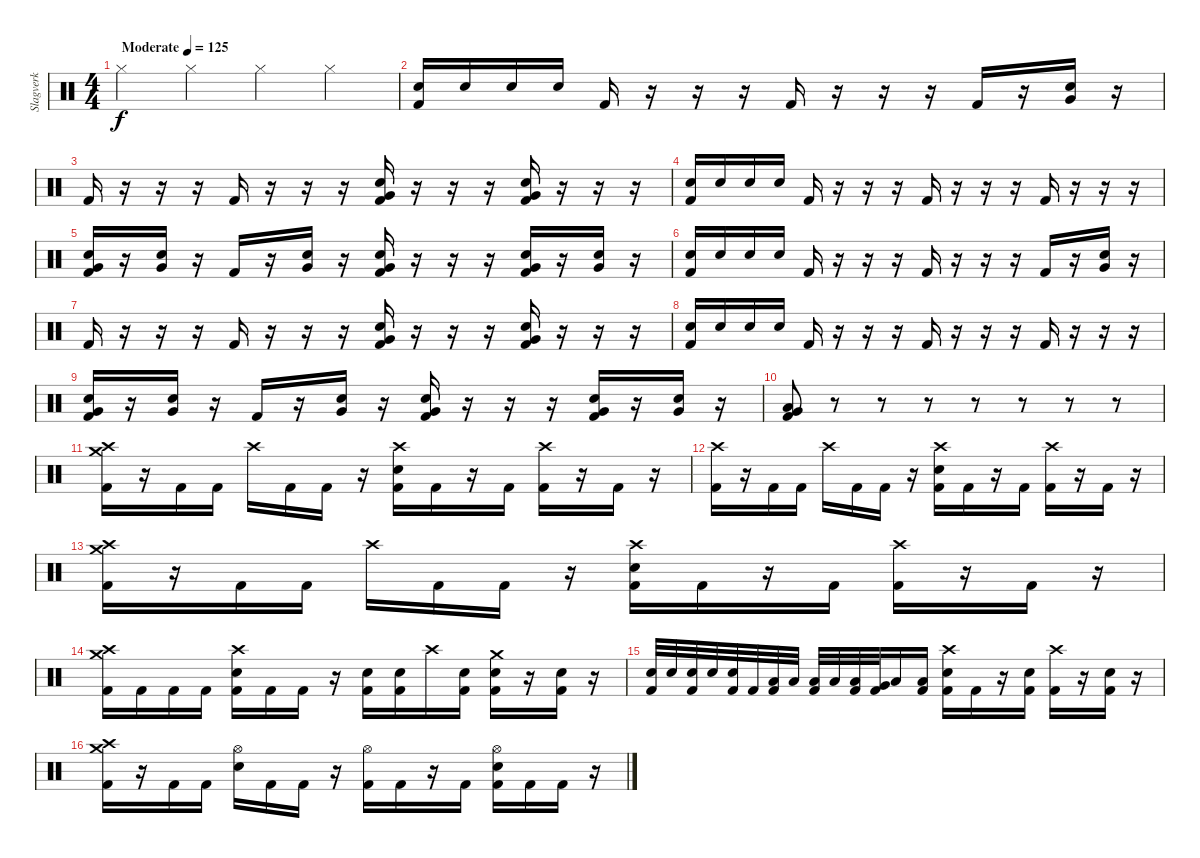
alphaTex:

\track ("Slagverk" "Slagverk") {instrument percussion}
\staff {score}
\articulation defaults
\ts (4 4)
\tempo (125 "Moderate")
\clef neutral
\ks c "Hi-Hat (closed)".4{dy f} "Hi-Hat (closed)".4 "Hi-Hat (closed)".4 "Hi-Hat (closed)".4
|
("Kick (hit) 2" "Snare (hit) 2").16 "Snare (hit) 2".16 "Snare (hit) 2".16 "Snare (hit) 2".16 "Kick (hit) 2".16 r.16 r.16 r.16 "Kick (hit) 2".16 r.16 r.16 r.16 "Kick (hit) 2".16 r.16 ("Very Low Tom (hit)" "Snare (hit) 2").16 r.16 |
"Kick (hit) 2".16 r.16 r.16 r.16 "Kick (hit) 2".16 r.16 r.16 r.16 ("Kick (hit) 2" "Very Low Tom (hit)" "Snare (hit) 2").16 r.16 r.16 r.16 ("Kick (hit) 2" "Very Low Tom (hit)" "Snare (hit) 2").16 r.16 r.16 r.16 |
("Kick (hit) 2" "Snare (hit) 2").16 "Snare (hit) 2".16 "Snare (hit) 2".16 "Snare (hit) 2".16 "Kick (hit) 2".16 r.16 r.16 r.16 "Kick (hit) 2".16 r.16 r.16 r.16 "Kick (hit) 2".16 r.16 r.16 r.16 |
("Kick (hit) 2" "Very Low Tom (hit)" "Snare (hit) 2").16 r.16 ("Very Low Tom (hit)" "Snare (hit) 2").16 r.16 "Kick (hit) 2".16 r.16 ("Very Low Tom (hit)" "Snare (hit) 2").16 r.16 ("Kick (hit) 2" "Very Low Tom (hit)" "Snare (hit) 2").16 r.16 r.16 r.16 ("Kick (hit) 2" "Very Low Tom (hit)" "Snare (hit) 2").16 r.16 ("Very Low Tom (hit)" "Snare (hit) 2").16 r.16 |
("Kick (hit) 2" "Snare (hit) 2").16 "Snare (hit) 2".16 "Snare (hit) 2".16 "Snare (hit) 2".16 "Kick (hit) 2".16 r.16 r.16 r.16 "Kick (hit) 2".16 r.16 r.16 r.16 "Kick (hit) 2".16 r.16 ("Very Low Tom (hit)" "Snare (hit) 2").16 r.16 |
"Kick (hit) 2".16 r.16 r.16 r.16 "Kick (hit) 2".16 r.16 r.16 r.16 ("Kick (hit) 2" "Very Low Tom (hit)" "Snare (hit) 2").16 r.16 r.16 r.16 ("Kick (hit) 2" "Very Low Tom (hit)" "Snare (hit) 2").16 r.16 r.16 r.16 |
("Kick (hit) 2" "Snare (hit) 2").16 "Snare (hit) 2".16 "Snare (hit) 2".16 "Snare (hit) 2".16 "Kick (hit) 2".16 r.16 r.16 r.16 "Kick (hit) 2".16 r.16 r.16 r.16 "Kick (hit) 2".16 r.16 r.16 r.16 |
("Kick (hit) 2" "Very Low Tom (hit)" "Snare (hit) 2").16 r.16 ("Very Low Tom (hit)" "Snare (hit) 2").16 r.16 "Kick (hit) 2".16 r.16 ("Very Low Tom (hit)" "Snare (hit) 2").16 r.16 ("Kick (hit) 2" "Very Low Tom (hit)" "Snare (hit) 2").16 r.16 r.16 r.16 ("Kick (hit) 2" "Very Low Tom (hit)" "Snare (hit) 2").16 r.16 ("Very Low Tom (hit)" "Snare (hit) 2").16 r.16 |
("Kick (hit) 2" "Low Tom (hit)" "Very Low Tom (hit)").8 r.8 r.8 r.8 r.8 r.8 r.8 r.8 |
("Kick (hit) 2" "Crash high (hit)" "Crash medium (hit)").16 r.16 "Kick (hit) 2".16 "Kick (hit) 2".16 "Crash high (hit)".16 "Kick (hit) 2".16 "Kick (hit) 2".16 r.16 ("Kick (hit) 2" "Snare (hit) 2" "Crash high (hit)").16 "Kick (hit) 2".16 r.16 "Kick (hit) 2".16 ("Kick (hit) 2" "Crash high (hit)").16 r.16 "Kick (hit) 2".16 r.16 |
("Kick (hit) 2" "Crash high (hit)").16 r.16 "Kick (hit) 2".16 "Kick (hit) 2".16 "Crash high (hit)".16 "Kick (hit) 2".16 "Kick (hit) 2".16 r.16 ("Kick (hit) 2" "Snare (hit) 2" "Crash high (hit)").16 "Kick (hit) 2".16 r.16 "Kick (hit) 2".16 ("Kick (hit) 2" "Crash high (hit)").16 r.16 "Kick (hit) 2".16 r.16 |
("Kick (hit) 2" "Crash high (hit)" "Crash medium (hit)").16 r.16 "Kick (hit) 2".16 "Kick (hit) 2".16 "Crash high (hit)".16 "Kick (hit) 2".16 "Kick (hit) 2".16 r.16 ("Kick (hit) 2" "Snare (hit) 2" "Crash high (hit)").16 "Kick (hit) 2".16 r.16 "Kick (hit) 2".16 ("Kick (hit) 2" "Crash high (hit)").16 r.16 "Kick (hit) 2".16 r.16 |
("Kick (hit) 2" "Crash high (hit)" "Crash medium (hit)").16 "Kick (hit) 2".16 "Kick (hit) 2".16 "Kick (hit) 2".16 ("Kick (hit) 2" "Snare (hit) 2" "Crash high (hit)").16 "Kick (hit) 2".16 "Kick (hit) 2".16 r.16 ("Kick (hit) 2" "Snare (hit) 2").16 ("Kick (hit) 2" "Snare (hit) 2").16 "Crash high (hit)".16 ("Kick (hit) 2" "Snare (hit) 2").16 ("Kick (hit) 2" "Snare (hit) 2" "Crash medium (hit)").16 r.16 ("Kick (hit) 2" "Snare (hit) 2").16 r.16 |
("Kick (hit) 2" "Snare (hit) 2").32 "Snare (hit) 2".32 ("Kick (hit) 2" "Snare (hit) 2").32 "Snare (hit) 2".32 ("Kick (hit) 2" "Snare (hit) 2").32 "Kick (hit) 2".32 ("Kick (hit) 2" "Low Tom (hit)").32 "Low Tom (hit)".32 ("Kick (hit) 2" "Low Tom (hit)").32 "Low Tom (hit)".32 ("Kick (hit) 2" "Low Tom (hit)").32 ("Kick (hit) 2" "Very Low Tom (hit)").32 "Low Tom (hit)".16 ("Kick (hit) 2" "Low Tom (hit)").16 ("Kick (hit) 2" "Snare (hit) 2" "Crash high (hit)").16 "Kick (hit) 2".16 r.16 ("Kick (hit) 2" "Snare (hit) 2").16 ("Kick (hit) 2" "Crash high (hit)").16 r.16 ("Kick (hit) 2" "Snare (hit) 2").16 r.16 |
("Kick (hit) 2" "Crash high (hit)" "Crash medium (hit)").16 r.16 "Kick (hit) 2".16 "Kick (hit) 2".16 ("Snare (hit) 2" "Hi-Hat (open)").16 "Kick (hit) 2".16 "Kick (hit) 2".16 r.16 ("Kick (hit) 2" "Hi-Hat (open)").16 "Kick (hit) 2".16 r.16 "Kick (hit) 2".16 ("Kick (hit) 2" "Snare (hit) 2" "Hi-Hat (open)").16 "Kick (hit) 2".16 "Kick (hit) 2".16 r.16
